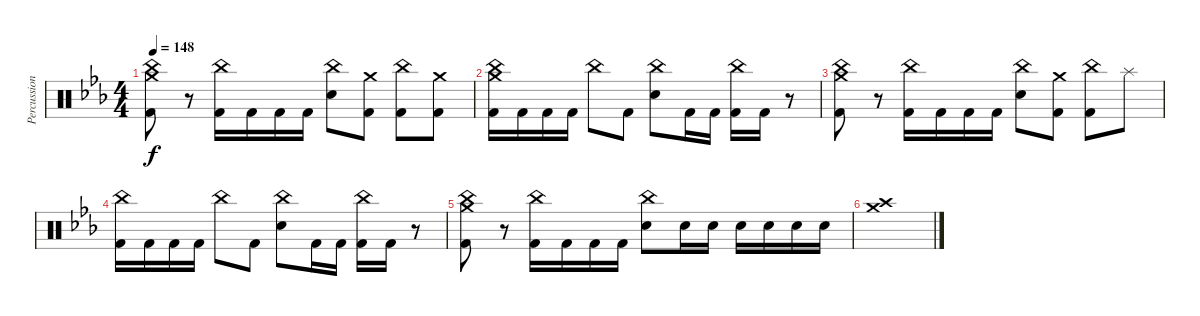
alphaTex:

\track ("Percussion" "Percussion") {instrument percussion}
\staff {score}
\articulation defaults
\ts (4 4)
\tempo 148
\clef neutral
\ks cminor
("Crash medium (hit)" "China (hit)" "Kick (hit) 2").8{dy f} r.8 ("China (hit)" "Kick (hit) 2").16 "Kick (hit) 2".16 "Kick (hit) 2".16 "Kick (hit) 2".16 ("China (hit)" "Electric Snare (hit)").8 ("Crash medium (hit)" "Kick (hit) 2").8 ("China (hit)" "Kick (hit) 2").8 ("Crash medium (hit)" "Kick (hit) 2").8 |
("Crash medium (hit)" "China (hit)" "Kick (hit) 2").16 "Kick (hit) 2".16 "Kick (hit) 2".16 "Kick (hit) 2".16 "China (hit)".8 "Kick (hit) 2".8 ("China (hit)" "Electric Snare (hit)").8 "Kick (hit) 2".16 "Kick (hit) 2".16 ("China (hit)" "Kick (hit) 2").16 "Kick (hit) 2".16 r.8 |
("Crash medium (hit)" "China (hit)" "Kick (hit) 2").8 r.8 ("China (hit)" "Kick (hit) 2").16 "Kick (hit) 2".16 "Kick (hit) 2".16 "Kick (hit) 2".16 ("China (hit)" "Electric Snare (hit)").8 ("Crash medium (hit)" "Kick (hit) 2").8 ("China (hit)" "Kick (hit) 2").8 "Splash (hit)".8 |
("China (hit)" "Kick (hit) 2").16 "Kick (hit) 2".16 "Kick (hit) 2".16 "Kick (hit) 2".16 "China (hit)".8 "Kick (hit) 2".8 ("China (hit)" "Electric Snare (hit)").8 "Kick (hit) 2".16 "Kick (hit) 2".16 ("China (hit)" "Kick (hit) 2").16 "Kick (hit) 2".16 r.8 |
("Crash medium (hit)" "China (hit)" "Kick (hit) 2").8 r.8 ("China (hit)" "Kick (hit) 2").16 "Kick (hit) 2".16 "Kick (hit) 2".16 "Kick (hit) 2".16 ("China (hit)" "Electric Snare (hit)").8 "Electric Snare (hit)".16 "Electric Snare (hit)".16 "Electric Snare (hit)".16 "Electric Snare (hit)".16 "Electric Snare (hit)".16 "Electric Snare (hit)".16 |
("Crash medium (hit)" "Crash high (hit)").1
